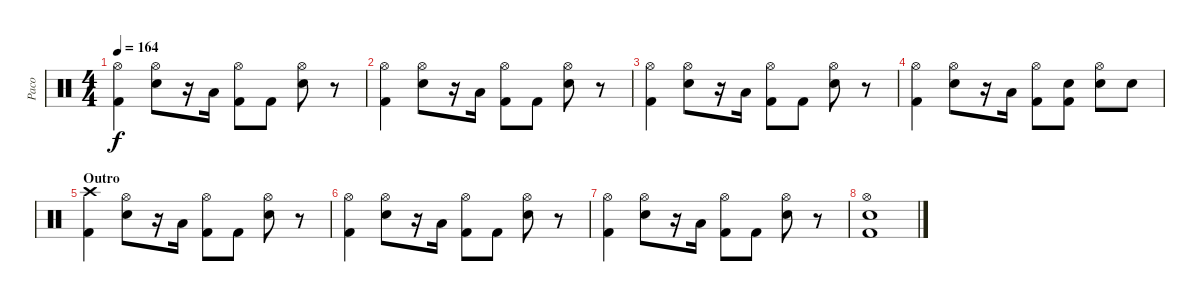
\track ("Paco" "Paco") {instrument percussion}
\staff {score}
\articulation defaults
\ts (4 4)
\tempo 164
\clef neutral
\ks c
("Hi-Hat (open)" "Kick (hit) 2").4{dy f} ("Hi-Hat (open)" "Electric Snare (hit)").8 r.16 "Low Floor Tom (hit)".16 ("Hi-Hat (open)" "Kick (hit) 2").8 "Kick (hit) 2".8 ("Hi-Hat (open)" "Electric Snare (hit)").8 r.8 |
("Hi-Hat (open)" "Kick (hit) 2").4 ("Hi-Hat (open)" "Electric Snare (hit)").8 r.16 "Low Floor Tom (hit)".16 ("Hi-Hat (open)" "Kick (hit) 2").8 "Kick (hit) 2".8 ("Hi-Hat (open)" "Electric Snare (hit)").8 r.8 |
("Hi-Hat (open)" "Kick (hit) 2").4 ("Hi-Hat (open)" "Electric Snare (hit)").8 r.16 "Low Floor Tom (hit)".16 ("Hi-Hat (open)" "Kick (hit) 2").8 "Kick (hit) 2".8 ("Hi-Hat (open)" "Electric Snare (hit)").8 r.8 |
("Hi-Hat (open)" "Kick (hit) 2").4 ("Hi-Hat (open)" "Electric Snare (hit)").8 r.16 "Low Floor Tom (hit)".16 ("Hi-Hat (open)" "Kick (hit) 2").8 ("Electric Snare (hit)" "Kick (hit) 2").8 ("Hi-Hat (open)" "Electric Snare (hit)").8 "Electric Snare (hit)".8 |
\section ("" "Outro")
("Crash high (hit)" "Kick (hit) 2").4 ("Hi-Hat (open)" "Electric Snare (hit)").8 r.16 "Low Floor Tom (hit)".16 ("Hi-Hat (open)" "Kick (hit) 2").8 "Kick (hit) 2".8 ("Hi-Hat (open)" "Electric Snare (hit)").8 r.8 |
("Hi-Hat (open)" "Kick (hit) 2").4 ("Hi-Hat (open)" "Electric Snare (hit)").8 r.16 "Low Floor Tom (hit)".16 ("Hi-Hat (open)" "Kick (hit) 2").8 "Kick (hit) 2".8 ("Hi-Hat (open)" "Electric Snare (hit)").8 r.8 |
("Hi-Hat (open)" "Kick (hit) 2").4 ("Hi-Hat (open)" "Electric Snare (hit)").8 r.16 "Low Floor Tom (hit)".16 ("Hi-Hat (open)" "Kick (hit) 2").8 "Kick (hit) 2".8 ("Hi-Hat (open)" "Electric Snare (hit)").8 r.8 |
("Hi-Hat (open)" "Electric Snare (hit)" "Kick (hit) 2").1
